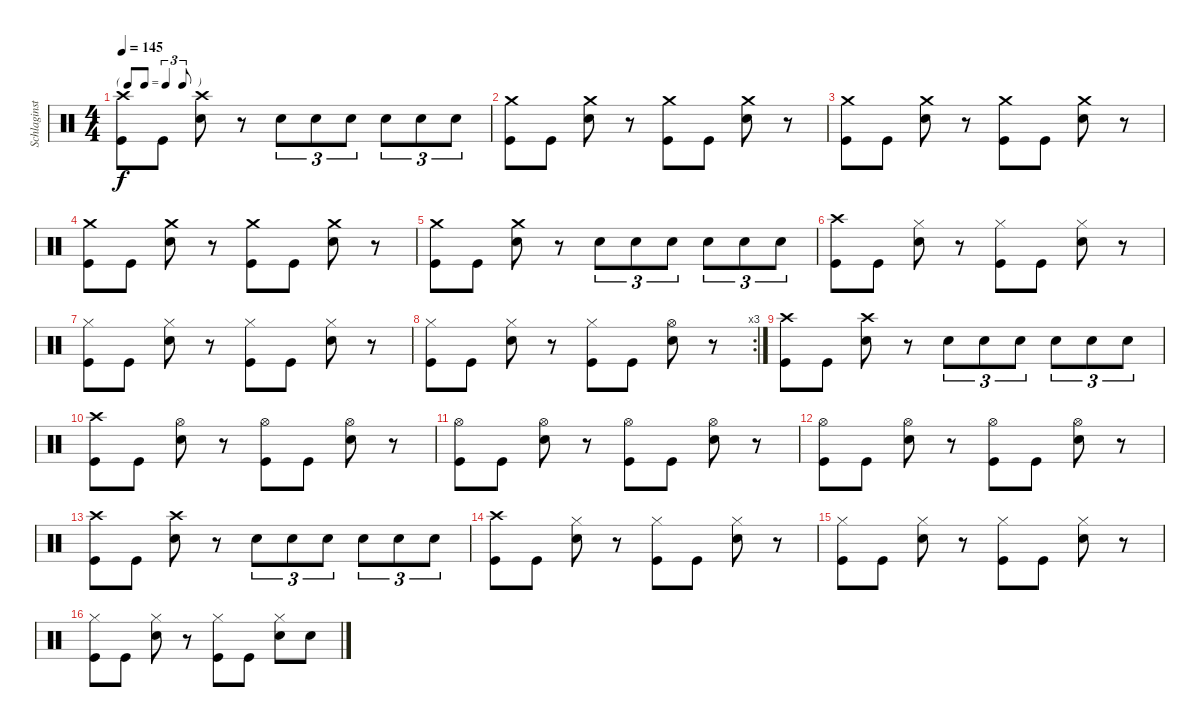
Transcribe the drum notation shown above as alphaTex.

\track ("Schlaginstrumente - Auswahl" "Schlaginst") {instrument percussion}
\staff {score}
\articulation defaults
\ts (4 4)
\tf triplet8th
\tempo 145
\clef neutral
\ks c
("Crash high (hit)" "Kick (hit)").8{dy f} "Kick (hit)".8 ("Crash high (hit)" "Snare (hit) 2").8 r.8 "Snare (hit) 2".8{tu (3 2)} "Snare (hit) 2".8{tu (3 2)} "Snare (hit) 2".8{tu (3 2)} "Snare (hit) 2".8{tu (3 2)} "Snare (hit) 2".8{tu (3 2)} "Snare (hit) 2".8{tu (3 2)} |
("Crash medium (hit)" "Kick (hit)").8 "Kick (hit)".8 ("Crash medium (hit)" "Snare (hit) 2").8 r.8 ("Crash medium (hit)" "Kick (hit)").8 "Kick (hit)".8 ("Crash medium (hit)" "Snare (hit) 2").8 r.8 |
("Crash medium (hit)" "Kick (hit)").8 "Kick (hit)".8 ("Crash medium (hit)" "Snare (hit) 2").8 r.8 ("Crash medium (hit)" "Kick (hit)").8 "Kick (hit)".8 ("Crash medium (hit)" "Snare (hit) 2").8 r.8 |
("Crash medium (hit)" "Kick (hit)").8 "Kick (hit)".8 ("Crash medium (hit)" "Snare (hit) 2").8 r.8 ("Crash medium (hit)" "Kick (hit)").8 "Kick (hit)".8 ("Crash medium (hit)" "Snare (hit) 2").8 r.8 |
("Crash medium (hit)" "Kick (hit)").8 "Kick (hit)".8 ("Crash medium (hit)" "Snare (hit) 2").8 r.8 "Snare (hit) 2".8{tu (3 2)} "Snare (hit) 2".8{tu (3 2)} "Snare (hit) 2".8{tu (3 2)} "Snare (hit) 2".8{tu (3 2)} "Snare (hit) 2".8{tu (3 2)} "Snare (hit) 2".8{tu (3 2)} |
("Crash high (hit)" "Kick (hit)").8 "Kick (hit)".8 ("Hi-Hat (closed)" "Snare (hit) 2").8 r.8 ("Hi-Hat (closed)" "Kick (hit)").8 "Kick (hit)".8 ("Hi-Hat (closed)" "Snare (hit) 2").8 r.8 |
("Hi-Hat (closed)" "Kick (hit)").8 "Kick (hit)".8 ("Hi-Hat (closed)" "Snare (hit) 2").8 r.8 ("Hi-Hat (closed)" "Kick (hit)").8 "Kick (hit)".8 ("Hi-Hat (closed)" "Snare (hit) 2").8 r.8 |
\rc 3
("Hi-Hat (closed)" "Kick (hit)").8 "Kick (hit)".8 ("Hi-Hat (closed)" "Snare (hit) 2").8 r.8 ("Hi-Hat (closed)" "Kick (hit)").8 "Kick (hit)".8 ("Hi-Hat (open)" "Snare (hit) 2").8 r.8 |
("Crash high (hit)" "Kick (hit)").8 "Kick (hit)".8 ("Crash high (hit)" "Snare (hit) 2").8 r.8 "Snare (hit) 2".8{tu (3 2)} "Snare (hit) 2".8{tu (3 2)} "Snare (hit) 2".8{tu (3 2)} "Snare (hit) 2".8{tu (3 2)} "Snare (hit) 2".8{tu (3 2)} "Snare (hit) 2".8{tu (3 2)} |
("Crash high (hit)" "Kick (hit)").8 "Kick (hit)".8 ("Hi-Hat (open)" "Snare (hit) 2").8 r.8 ("Hi-Hat (open)" "Kick (hit)").8 "Kick (hit)".8 ("Hi-Hat (open)" "Snare (hit) 2").8 r.8 |
("Hi-Hat (open)" "Kick (hit)").8 "Kick (hit)".8 ("Hi-Hat (open)" "Snare (hit) 2").8 r.8 ("Hi-Hat (open)" "Kick (hit)").8 "Kick (hit)".8 ("Hi-Hat (open)" "Snare (hit) 2").8 r.8 |
("Hi-Hat (open)" "Kick (hit)").8 "Kick (hit)".8 ("Hi-Hat (open)" "Snare (hit) 2").8 r.8 ("Hi-Hat (open)" "Kick (hit)").8 "Kick (hit)".8 ("Hi-Hat (open)" "Snare (hit) 2").8 r.8 |
("Crash high (hit)" "Kick (hit)").8 "Kick (hit)".8 ("Crash high (hit)" "Snare (hit) 2").8 r.8 "Snare (hit) 2".8{tu (3 2)} "Snare (hit) 2".8{tu (3 2)} "Snare (hit) 2".8{tu (3 2)} "Snare (hit) 2".8{tu (3 2)} "Snare (hit) 2".8{tu (3 2)} "Snare (hit) 2".8{tu (3 2)} |
("Crash high (hit)" "Kick (hit)").8 "Kick (hit)".8 ("Hi-Hat (closed)" "Snare (hit) 2").8 r.8 ("Hi-Hat (closed)" "Kick (hit)").8 "Kick (hit)".8 ("Hi-Hat (closed)" "Snare (hit) 2").8 r.8 |
("Hi-Hat (closed)" "Kick (hit)").8 "Kick (hit)".8 ("Hi-Hat (closed)" "Snare (hit) 2").8 r.8 ("Hi-Hat (closed)" "Kick (hit)").8 "Kick (hit)".8 ("Hi-Hat (closed)" "Snare (hit) 2").8 r.8 |
("Hi-Hat (closed)" "Kick (hit)").8 "Kick (hit)".8 ("Hi-Hat (closed)" "Snare (hit) 2").8 r.8 ("Hi-Hat (closed)" "Kick (hit)").8 "Kick (hit)".8 ("Hi-Hat (closed)" "Snare (hit) 2").8 "Snare (hit) 2".8
